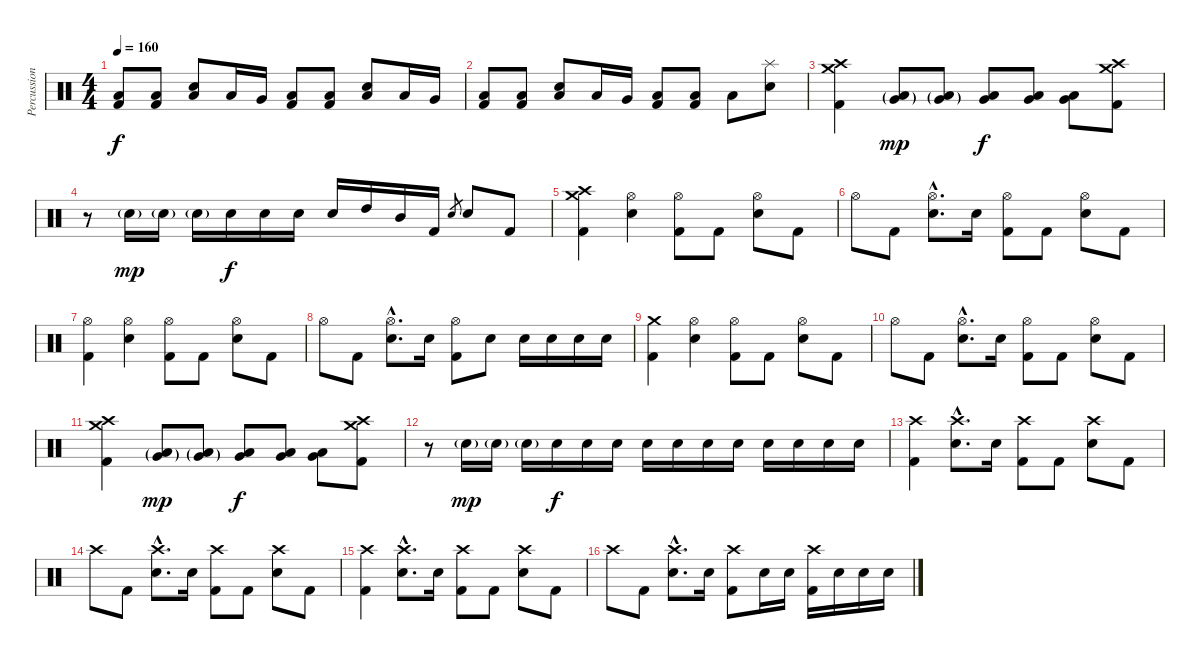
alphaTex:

\track ("Percussion" "Percussion") {instrument percussion}
\staff {score}
\articulation defaults
\ts (4 4)
\tempo 160
\clef neutral
\ks c
("Low Floor Tom (hit)" "Kick (hit) 2").8{dy f} ("Low Floor Tom (hit)" "Kick (hit) 2").8 ("Electric Snare (hit)" "Low Floor Tom (hit)").8 "Low Floor Tom (hit)".16 "Very Low Tom (hit)".16 ("Low Floor Tom (hit)" "Kick (hit) 2").8 ("Low Floor Tom (hit)" "Kick (hit) 2").8 ("Electric Snare (hit)" "Low Floor Tom (hit)").8 "Low Floor Tom (hit)".16 "Very Low Tom (hit)".16 |
("Low Floor Tom (hit)" "Kick (hit) 2").8 ("Low Floor Tom (hit)" "Kick (hit) 2").8 ("Electric Snare (hit)" "Low Floor Tom (hit)").8 "Low Floor Tom (hit)".16 "Very Low Tom (hit)".16 ("Low Floor Tom (hit)" "Kick (hit) 2").8 ("Low Floor Tom (hit)" "Kick (hit) 2").8 "Low Floor Tom (hit)".8 ("Splash (hit)" "Electric Snare (hit)").8 |
("Crash high (hit)" "Crash medium (hit)" "Kick (hit) 2").4 ("Very Low Tom (hit)"{g} "Low Floor Tom (hit)"{g}).8{dy mp} ("Very Low Tom (hit)"{g} "Low Floor Tom (hit)"{g}).8 ("Very Low Tom (hit)" "Low Floor Tom (hit)").8{dy f} ("Very Low Tom (hit)" "Low Floor Tom (hit)").8 ("Very Low Tom (hit)" "Low Floor Tom (hit)").8 ("Crash high (hit)" "Crash medium (hit)" "Kick (hit) 2").8 |
r.8 "Electric Snare (hit)"{g}.16{dy mp} "Electric Snare (hit)"{g}.16 "Electric Snare (hit)"{g}.16 "Electric Snare (hit)".16{dy f} "Electric Snare (hit)".16 "Electric Snare (hit)".16 "Electric Snare (hit)".16 "High Tom (hit)".16 "Mid Tom (hit)".16 "Kick (hit) 2".16 "Electric Snare (hit)".8{gr} "Electric Snare (hit)".8 "Kick (hit) 2".8 |
("Crash high (hit)" "Crash medium (hit)" "Kick (hit) 2").4 ("Hi-Hat (open)" "Electric Snare (hit)").4 ("Hi-Hat (open)" "Kick (hit) 2").8 "Kick (hit) 2".8 ("Hi-Hat (open)" "Electric Snare (hit)").8 "Kick (hit) 2".8 |
"Hi-Hat (open)".8 "Kick (hit) 2".8 ("Hi-Hat (open)"{hac} "Electric Snare (hit)"{hac}).8{d} "Electric Snare (hit)".16 ("Hi-Hat (open)" "Kick (hit) 2").8 "Kick (hit) 2".8 ("Hi-Hat (open)" "Electric Snare (hit)").8 "Kick (hit) 2".8 |
("Hi-Hat (open)" "Kick (hit) 2").4 ("Hi-Hat (open)" "Electric Snare (hit)").4 ("Hi-Hat (open)" "Kick (hit) 2").8 "Kick (hit) 2".8 ("Hi-Hat (open)" "Electric Snare (hit)").8 "Kick (hit) 2".8 |
"Hi-Hat (open)".8 "Kick (hit) 2".8 ("Hi-Hat (open)"{hac} "Electric Snare (hit)"{hac}).8{d} "Electric Snare (hit)".16 ("Hi-Hat (open)" "Kick (hit) 2").8 "Electric Snare (hit)".8 "Electric Snare (hit)".16 "Electric Snare (hit)".16 "Electric Snare (hit)".16 "Electric Snare (hit)".16 |
("Crash medium (hit)" "Kick (hit) 2").4 ("Hi-Hat (open)" "Electric Snare (hit)").4 ("Hi-Hat (open)" "Kick (hit) 2").8 "Kick (hit) 2".8 ("Hi-Hat (open)" "Electric Snare (hit)").8 "Kick (hit) 2".8 |
"Hi-Hat (open)".8 "Kick (hit) 2".8 ("Hi-Hat (open)"{hac} "Electric Snare (hit)"{hac}).8{d} "Electric Snare (hit)".16 ("Hi-Hat (open)" "Kick (hit) 2").8 "Kick (hit) 2".8 ("Hi-Hat (open)" "Electric Snare (hit)").8 "Kick (hit) 2".8 |
("Crash high (hit)" "Crash medium (hit)" "Kick (hit) 2").4 ("Very Low Tom (hit)"{g} "Low Floor Tom (hit)"{g}).8{dy mp} ("Very Low Tom (hit)"{g} "Low Floor Tom (hit)"{g}).8 ("Very Low Tom (hit)" "Low Floor Tom (hit)").8{dy f} ("Very Low Tom (hit)" "Low Floor Tom (hit)").8 ("Very Low Tom (hit)" "Low Floor Tom (hit)").8 ("Crash high (hit)" "Crash medium (hit)" "Kick (hit) 2").8 |
r.8 "Electric Snare (hit)"{g}.16{dy mp} "Electric Snare (hit)"{g}.16 "Electric Snare (hit)"{g}.16 "Electric Snare (hit)".16{dy f} "Electric Snare (hit)".16 "Electric Snare (hit)".16 "Electric Snare (hit)".16 "Electric Snare (hit)".16 "Electric Snare (hit)".16 "Electric Snare (hit)".16 "Electric Snare (hit)".16 "Electric Snare (hit)".16 "Electric Snare (hit)".16 "Electric Snare (hit)".16 |
("Crash high (hit)" "Kick (hit) 2").4 ("Crash high (hit)"{hac} "Electric Snare (hit)"{hac}).8{d} "Electric Snare (hit)".16 ("Crash high (hit)" "Kick (hit) 2").8 "Kick (hit) 2".8 ("Crash high (hit)" "Electric Snare (hit)").8 "Kick (hit) 2".8 |
"Crash high (hit)".8 "Kick (hit) 2".8 ("Crash high (hit)"{hac} "Electric Snare (hit)"{hac}).8{d} "Electric Snare (hit)".16 ("Crash high (hit)" "Kick (hit) 2").8 "Kick (hit) 2".8 ("Crash high (hit)" "Electric Snare (hit)").8 "Kick (hit) 2".8 |
("Crash high (hit)" "Kick (hit) 2").4 ("Crash high (hit)"{hac} "Electric Snare (hit)"{hac}).8{d} "Electric Snare (hit)".16 ("Crash high (hit)" "Kick (hit) 2").8 "Kick (hit) 2".8 ("Crash high (hit)" "Electric Snare (hit)").8 "Kick (hit) 2".8 |
"Crash high (hit)".8 "Kick (hit) 2".8 ("Crash high (hit)"{hac} "Electric Snare (hit)"{hac}).8{d} "Electric Snare (hit)".16 ("Crash high (hit)" "Kick (hit) 2").8 "Electric Snare (hit)".16 "Electric Snare (hit)".16 ("Crash high (hit)" "Kick (hit) 2").16 "Electric Snare (hit)".16 "Electric Snare (hit)".16 "Electric Snare (hit)".16
